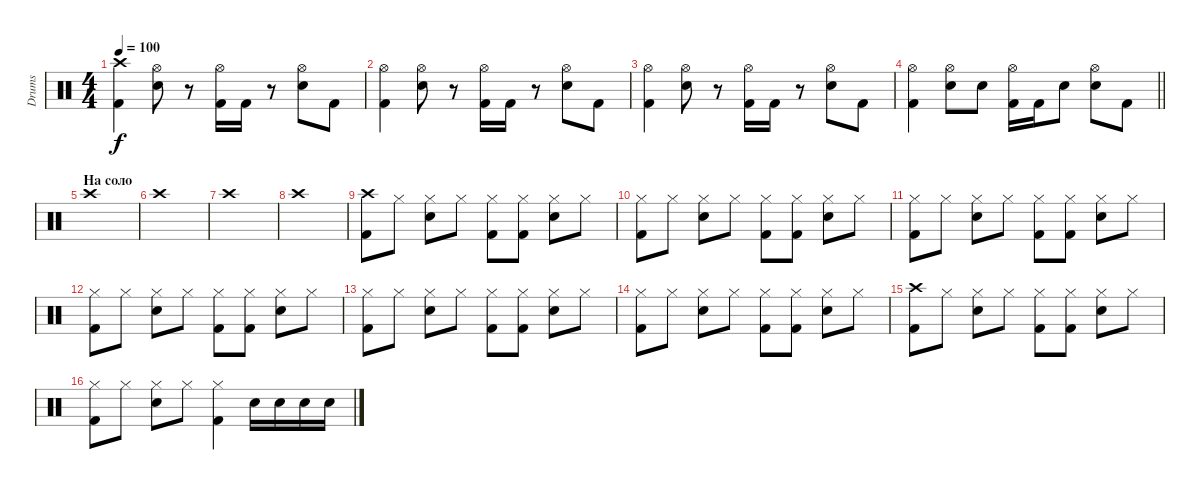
\track ("Drums" "Drums") {instrument percussion}
\staff {score}
\articulation defaults
\ts (4 4)
\tempo 100
\clef neutral
\ks c
("Crash high (hit)" "Kick (hit) 2").4{dy f} ("Hi-Hat (open)" "Snare (hit) 2").8 r.8 ("Hi-Hat (open)" "Kick (hit) 2").16 "Kick (hit) 2".16 r.8 ("Hi-Hat (open)" "Snare (hit) 2").8 "Kick (hit) 2".8 |
("Hi-Hat (open)" "Kick (hit) 2").4 ("Hi-Hat (open)" "Snare (hit) 2").8 r.8 ("Hi-Hat (open)" "Kick (hit) 2").16 "Kick (hit) 2".16 r.8 ("Hi-Hat (open)" "Snare (hit) 2").8 "Kick (hit) 2".8 |
("Hi-Hat (open)" "Kick (hit) 2").4 ("Hi-Hat (open)" "Snare (hit) 2").8 r.8 ("Hi-Hat (open)" "Kick (hit) 2").16 "Kick (hit) 2".16 r.8 ("Hi-Hat (open)" "Snare (hit) 2").8 "Kick (hit) 2".8 |
\barLineRight lightlight
("Hi-Hat (open)" "Kick (hit) 2").4 ("Hi-Hat (open)" "Snare (hit) 2").8 "Snare (hit) 2".8 ("Hi-Hat (open)" "Kick (hit) 2").16 "Kick (hit) 2".16 "Snare (hit) 2".8 ("Hi-Hat (open)" "Snare (hit) 2").8 "Kick (hit) 2".8 |
\section ("" "На соло")
"Crash high (hit)".1 |
"Crash high (hit)".1 |
"Crash high (hit)".1 |
"Crash high (hit)".1 |
("Crash high (hit)" "Kick (hit) 2").8 "Hi-Hat (closed)".8 ("Hi-Hat (closed)" "Snare (hit) 2").8 "Hi-Hat (closed)".8 ("Hi-Hat (closed)" "Kick (hit) 2").8 ("Hi-Hat (closed)" "Kick (hit) 2").8 ("Hi-Hat (closed)" "Snare (hit) 2").8 "Hi-Hat (closed)".8 |
("Hi-Hat (closed)" "Kick (hit) 2").8 "Hi-Hat (closed)".8 ("Hi-Hat (closed)" "Snare (hit) 2").8 "Hi-Hat (closed)".8 ("Hi-Hat (closed)" "Kick (hit) 2").8 ("Hi-Hat (closed)" "Kick (hit) 2").8 ("Hi-Hat (closed)" "Snare (hit) 2").8 "Hi-Hat (closed)".8 |
("Hi-Hat (closed)" "Kick (hit) 2").8 "Hi-Hat (closed)".8 ("Hi-Hat (closed)" "Snare (hit) 2").8 "Hi-Hat (closed)".8 ("Hi-Hat (closed)" "Kick (hit) 2").8 ("Hi-Hat (closed)" "Kick (hit) 2").8 ("Hi-Hat (closed)" "Snare (hit) 2").8 "Hi-Hat (closed)".8 |
("Hi-Hat (closed)" "Kick (hit) 2").8 "Hi-Hat (closed)".8 ("Hi-Hat (closed)" "Snare (hit) 2").8 "Hi-Hat (closed)".8 ("Hi-Hat (closed)" "Kick (hit) 2").8 ("Hi-Hat (closed)" "Kick (hit) 2").8 ("Hi-Hat (closed)" "Snare (hit) 2").8 "Hi-Hat (closed)".8 |
("Hi-Hat (closed)" "Kick (hit) 2").8 "Hi-Hat (closed)".8 ("Hi-Hat (closed)" "Snare (hit) 2").8 "Hi-Hat (closed)".8 ("Hi-Hat (closed)" "Kick (hit) 2").8 ("Hi-Hat (closed)" "Kick (hit) 2").8 ("Hi-Hat (closed)" "Snare (hit) 2").8 "Hi-Hat (closed)".8 |
("Hi-Hat (closed)" "Kick (hit) 2").8 "Hi-Hat (closed)".8 ("Hi-Hat (closed)" "Snare (hit) 2").8 "Hi-Hat (closed)".8 ("Hi-Hat (closed)" "Kick (hit) 2").8 ("Hi-Hat (closed)" "Kick (hit) 2").8 ("Hi-Hat (closed)" "Snare (hit) 2").8 "Hi-Hat (closed)".8 |
("Crash high (hit)" "Kick (hit) 2").8 "Hi-Hat (closed)".8 ("Hi-Hat (closed)" "Snare (hit) 2").8 "Hi-Hat (closed)".8 ("Hi-Hat (closed)" "Kick (hit) 2").8 ("Hi-Hat (closed)" "Kick (hit) 2").8 ("Hi-Hat (closed)" "Snare (hit) 2").8 "Hi-Hat (closed)".8 |
("Hi-Hat (closed)" "Kick (hit) 2").8 "Hi-Hat (closed)".8 ("Hi-Hat (closed)" "Snare (hit) 2").8 "Hi-Hat (closed)".8 ("Hi-Hat (closed)" "Kick (hit) 2").4 "Snare (hit) 2".16 "Snare (hit) 2".16 "Snare (hit) 2".16 "Snare (hit) 2".16
